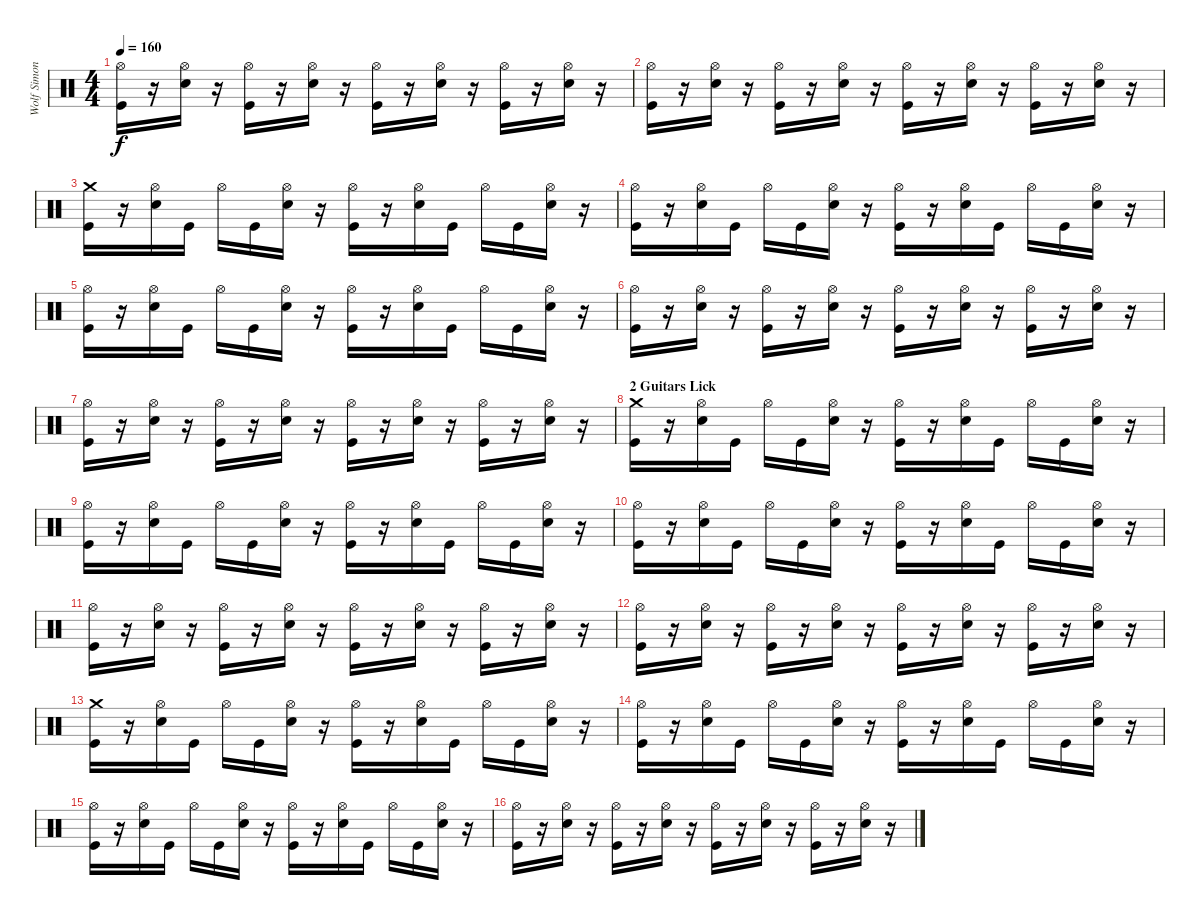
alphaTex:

\track ("Wolf Simons" "Wolf Simon") {instrument percussion}
\staff {score}
\articulation defaults
\ts (4 4)
\tempo 160
\clef neutral
\ks c
("Hi-Hat (open)" "Kick (hit)").16{dy f} r.16 ("Hi-Hat (open)" "Electric Snare (hit)").16 r.16 ("Hi-Hat (open)" "Kick (hit)").16 r.16 ("Hi-Hat (open)" "Electric Snare (hit)").16 r.16 ("Hi-Hat (open)" "Kick (hit)").16 r.16 ("Hi-Hat (open)" "Electric Snare (hit)").16 r.16 ("Hi-Hat (open)" "Kick (hit)").16 r.16 ("Hi-Hat (open)" "Electric Snare (hit)").16 r.16 |
("Hi-Hat (open)" "Kick (hit)").16 r.16 ("Hi-Hat (open)" "Electric Snare (hit)").16 r.16 ("Hi-Hat (open)" "Kick (hit)").16 r.16 ("Hi-Hat (open)" "Electric Snare (hit)").16 r.16 ("Hi-Hat (open)" "Kick (hit)").16 r.16 ("Hi-Hat (open)" "Electric Snare (hit)").16 r.16 ("Hi-Hat (open)" "Kick (hit)").16 r.16 ("Hi-Hat (open)" "Electric Snare (hit)").16 r.16 |
("Crash medium (hit)" "Kick (hit)").16 r.16 ("Hi-Hat (open)" "Electric Snare (hit)").16 "Kick (hit)".16 "Hi-Hat (open)".16 "Kick (hit)".16 ("Hi-Hat (open)" "Electric Snare (hit)").16 r.16 ("Hi-Hat (open)" "Kick (hit)").16 r.16 ("Hi-Hat (open)" "Electric Snare (hit)").16 "Kick (hit)".16 "Hi-Hat (open)".16 "Kick (hit)".16 ("Hi-Hat (open)" "Electric Snare (hit)").16 r.16 |
("Hi-Hat (open)" "Kick (hit)").16 r.16 ("Hi-Hat (open)" "Electric Snare (hit)").16 "Kick (hit)".16 "Hi-Hat (open)".16 "Kick (hit)".16 ("Hi-Hat (open)" "Electric Snare (hit)").16 r.16 ("Hi-Hat (open)" "Kick (hit)").16 r.16 ("Hi-Hat (open)" "Electric Snare (hit)").16 "Kick (hit)".16 "Hi-Hat (open)".16 "Kick (hit)".16 ("Hi-Hat (open)" "Electric Snare (hit)").16 r.16 |
("Hi-Hat (open)" "Kick (hit)").16 r.16 ("Hi-Hat (open)" "Electric Snare (hit)").16 "Kick (hit)".16 "Hi-Hat (open)".16 "Kick (hit)".16 ("Hi-Hat (open)" "Electric Snare (hit)").16 r.16 ("Hi-Hat (open)" "Kick (hit)").16 r.16 ("Hi-Hat (open)" "Electric Snare (hit)").16 "Kick (hit)".16 "Hi-Hat (open)".16 "Kick (hit)".16 ("Hi-Hat (open)" "Electric Snare (hit)").16 r.16 |
("Hi-Hat (open)" "Kick (hit)").16 r.16 ("Hi-Hat (open)" "Electric Snare (hit)").16 r.16 ("Hi-Hat (open)" "Kick (hit)").16 r.16 ("Hi-Hat (open)" "Electric Snare (hit)").16 r.16 ("Hi-Hat (open)" "Kick (hit)").16 r.16 ("Hi-Hat (open)" "Electric Snare (hit)").16 r.16 ("Hi-Hat (open)" "Kick (hit)").16 r.16 ("Hi-Hat (open)" "Electric Snare (hit)").16 r.16 |
("Hi-Hat (open)" "Kick (hit)").16 r.16 ("Hi-Hat (open)" "Electric Snare (hit)").16 r.16 ("Hi-Hat (open)" "Kick (hit)").16 r.16 ("Hi-Hat (open)" "Electric Snare (hit)").16 r.16 ("Hi-Hat (open)" "Kick (hit)").16 r.16 ("Hi-Hat (open)" "Electric Snare (hit)").16 r.16 ("Hi-Hat (open)" "Kick (hit)").16 r.16 ("Hi-Hat (open)" "Electric Snare (hit)").16 r.16 |
\section ("" "2 Guitars Lick")
("Crash medium (hit)" "Kick (hit)").16 r.16 ("Hi-Hat (open)" "Electric Snare (hit)").16 "Kick (hit)".16 "Hi-Hat (open)".16 "Kick (hit)".16 ("Hi-Hat (open)" "Electric Snare (hit)").16 r.16 ("Hi-Hat (open)" "Kick (hit)").16 r.16 ("Hi-Hat (open)" "Electric Snare (hit)").16 "Kick (hit)".16 "Hi-Hat (open)".16 "Kick (hit)".16 ("Hi-Hat (open)" "Electric Snare (hit)").16 r.16 |
("Hi-Hat (open)" "Kick (hit)").16 r.16 ("Hi-Hat (open)" "Electric Snare (hit)").16 "Kick (hit)".16 "Hi-Hat (open)".16 "Kick (hit)".16 ("Hi-Hat (open)" "Electric Snare (hit)").16 r.16 ("Hi-Hat (open)" "Kick (hit)").16 r.16 ("Hi-Hat (open)" "Electric Snare (hit)").16 "Kick (hit)".16 "Hi-Hat (open)".16 "Kick (hit)".16 ("Hi-Hat (open)" "Electric Snare (hit)").16 r.16 |
("Hi-Hat (open)" "Kick (hit)").16 r.16 ("Hi-Hat (open)" "Electric Snare (hit)").16 "Kick (hit)".16 "Hi-Hat (open)".16 "Kick (hit)".16 ("Hi-Hat (open)" "Electric Snare (hit)").16 r.16 ("Hi-Hat (open)" "Kick (hit)").16 r.16 ("Hi-Hat (open)" "Electric Snare (hit)").16 "Kick (hit)".16 "Hi-Hat (open)".16 "Kick (hit)".16 ("Hi-Hat (open)" "Electric Snare (hit)").16 r.16 |
("Hi-Hat (open)" "Kick (hit)").16 r.16 ("Hi-Hat (open)" "Electric Snare (hit)").16 r.16 ("Hi-Hat (open)" "Kick (hit)").16 r.16 ("Hi-Hat (open)" "Electric Snare (hit)").16 r.16 ("Hi-Hat (open)" "Kick (hit)").16 r.16 ("Hi-Hat (open)" "Electric Snare (hit)").16 r.16 ("Hi-Hat (open)" "Kick (hit)").16 r.16 ("Hi-Hat (open)" "Electric Snare (hit)").16 r.16 |
("Hi-Hat (open)" "Kick (hit)").16 r.16 ("Hi-Hat (open)" "Electric Snare (hit)").16 r.16 ("Hi-Hat (open)" "Kick (hit)").16 r.16 ("Hi-Hat (open)" "Electric Snare (hit)").16 r.16 ("Hi-Hat (open)" "Kick (hit)").16 r.16 ("Hi-Hat (open)" "Electric Snare (hit)").16 r.16 ("Hi-Hat (open)" "Kick (hit)").16 r.16 ("Hi-Hat (open)" "Electric Snare (hit)").16 r.16 |
("Crash medium (hit)" "Kick (hit)").16 r.16 ("Hi-Hat (open)" "Electric Snare (hit)").16 "Kick (hit)".16 "Hi-Hat (open)".16 "Kick (hit)".16 ("Hi-Hat (open)" "Electric Snare (hit)").16 r.16 ("Hi-Hat (open)" "Kick (hit)").16 r.16 ("Hi-Hat (open)" "Electric Snare (hit)").16 "Kick (hit)".16 "Hi-Hat (open)".16 "Kick (hit)".16 ("Hi-Hat (open)" "Electric Snare (hit)").16 r.16 |
("Hi-Hat (open)" "Kick (hit)").16 r.16 ("Hi-Hat (open)" "Electric Snare (hit)").16 "Kick (hit)".16 "Hi-Hat (open)".16 "Kick (hit)".16 ("Hi-Hat (open)" "Electric Snare (hit)").16 r.16 ("Hi-Hat (open)" "Kick (hit)").16 r.16 ("Hi-Hat (open)" "Electric Snare (hit)").16 "Kick (hit)".16 "Hi-Hat (open)".16 "Kick (hit)".16 ("Hi-Hat (open)" "Electric Snare (hit)").16 r.16 |
("Hi-Hat (open)" "Kick (hit)").16 r.16 ("Hi-Hat (open)" "Electric Snare (hit)").16 "Kick (hit)".16 "Hi-Hat (open)".16 "Kick (hit)".16 ("Hi-Hat (open)" "Electric Snare (hit)").16 r.16 ("Hi-Hat (open)" "Kick (hit)").16 r.16 ("Hi-Hat (open)" "Electric Snare (hit)").16 "Kick (hit)".16 "Hi-Hat (open)".16 "Kick (hit)".16 ("Hi-Hat (open)" "Electric Snare (hit)").16 r.16 |
("Hi-Hat (open)" "Kick (hit)").16 r.16 ("Hi-Hat (open)" "Electric Snare (hit)").16 r.16 ("Hi-Hat (open)" "Kick (hit)").16 r.16 ("Hi-Hat (open)" "Electric Snare (hit)").16 r.16 ("Hi-Hat (open)" "Kick (hit)").16 r.16 ("Hi-Hat (open)" "Electric Snare (hit)").16 r.16 ("Hi-Hat (open)" "Kick (hit)").16 r.16 ("Hi-Hat (open)" "Electric Snare (hit)").16 r.16
